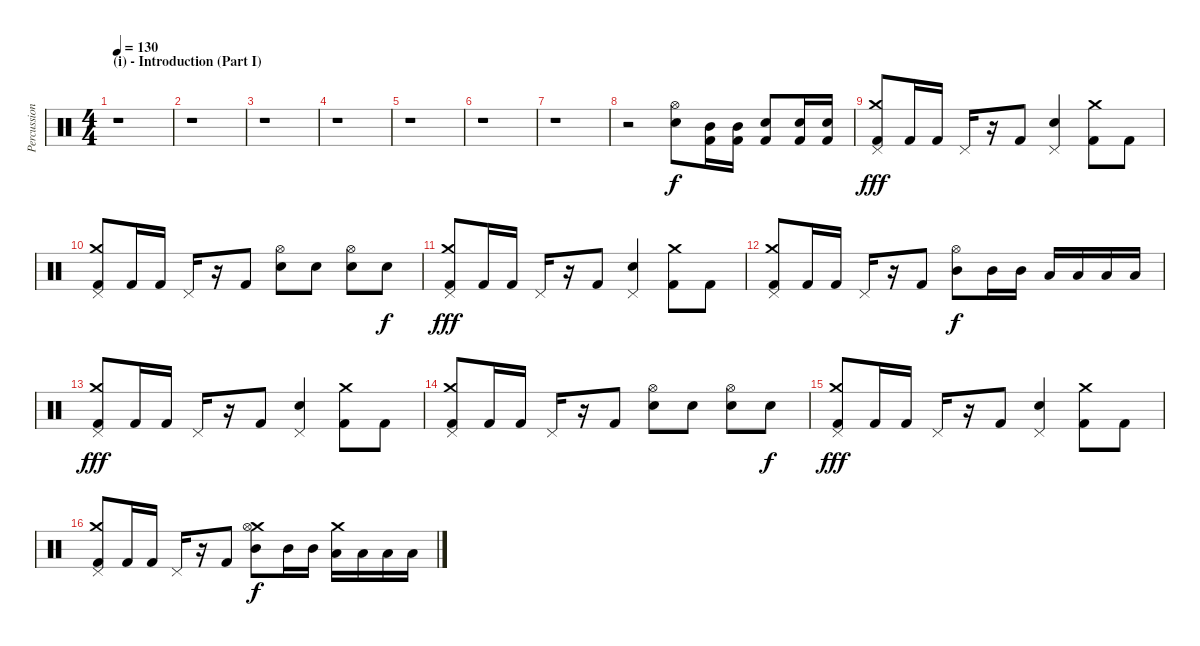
\track ("Percussion" "Percussion") {instrument percussion}
\staff {score}
\articulation defaults
\ts (4 4)
\section ("" "(i) - Introduction (Part I)")
\tempo 130
\clef neutral
\ks c
r.1{dy f} |
r.1 |
r.1 |
r.1 |
r.1 |
r.1 |
r.1 |
r.2 ("Hi-Hat (open)" "Snare (hit) 2").8 ("Mid Tom (hit)" "Kick (hit) 2").16 ("Mid Tom (hit)" "Kick (hit) 2").16 ("Snare (hit) 2" "Kick (hit) 2").8 ("Snare (hit) 2" "Kick (hit) 2").16 ("Snare (hit) 2" "Kick (hit) 2").16 |
("Crash medium (hit)" "Pedal Hi-Hat (hit)" "Kick (hit) 2").8{dy fff} "Kick (hit) 2".16 "Kick (hit) 2".16 "Pedal Hi-Hat (hit)".16 r.16 "Kick (hit) 2".8 ("Pedal Hi-Hat (hit)" "Snare (hit) 2").4 ("Crash medium (hit)" "Kick (hit) 2").8 "Kick (hit) 2".8 |
("Crash medium (hit)" "Pedal Hi-Hat (hit)" "Kick (hit) 2").8 "Kick (hit) 2".16 "Kick (hit) 2".16 "Pedal Hi-Hat (hit)".16 r.16 "Kick (hit) 2".8 ("Hi-Hat (open)" "Snare (hit) 2").8 "Snare (hit) 2".8 ("Hi-Hat (open)" "Snare (hit) 2").8 "Snare (hit) 2".8{dy f} |
("Crash medium (hit)" "Pedal Hi-Hat (hit)" "Kick (hit) 2").8{dy fff} "Kick (hit) 2".16 "Kick (hit) 2".16 "Pedal Hi-Hat (hit)".16 r.16 "Kick (hit) 2".8 ("Pedal Hi-Hat (hit)" "Snare (hit) 2").4 ("Crash medium (hit)" "Kick (hit) 2").8 "Kick (hit) 2".8 |
("Crash medium (hit)" "Pedal Hi-Hat (hit)" "Kick (hit) 2").8 "Kick (hit) 2".16 "Kick (hit) 2".16 "Pedal Hi-Hat (hit)".16 r.16 "Kick (hit) 2".8 ("Hi-Hat (open)" "Mid Tom (hit)").8{dy f} "Mid Tom (hit)".16 "Mid Tom (hit)".16 "Low Tom (hit)".16 "Low Tom (hit)".16 "Low Tom (hit)".16 "Low Tom (hit)".16 |
("Crash medium (hit)" "Pedal Hi-Hat (hit)" "Kick (hit) 2").8{dy fff} "Kick (hit) 2".16 "Kick (hit) 2".16 "Pedal Hi-Hat (hit)".16 r.16 "Kick (hit) 2".8 ("Pedal Hi-Hat (hit)" "Snare (hit) 2").4 ("Crash medium (hit)" "Kick (hit) 2").8 "Kick (hit) 2".8 |
("Crash medium (hit)" "Pedal Hi-Hat (hit)" "Kick (hit) 2").8 "Kick (hit) 2".16 "Kick (hit) 2".16 "Pedal Hi-Hat (hit)".16 r.16 "Kick (hit) 2".8 ("Hi-Hat (open)" "Snare (hit) 2").8 "Snare (hit) 2".8 ("Hi-Hat (open)" "Snare (hit) 2").8 "Snare (hit) 2".8{dy f} |
("Crash medium (hit)" "Pedal Hi-Hat (hit)" "Kick (hit) 2").8{dy fff} "Kick (hit) 2".16 "Kick (hit) 2".16 "Pedal Hi-Hat (hit)".16 r.16 "Kick (hit) 2".8 ("Pedal Hi-Hat (hit)" "Snare (hit) 2").4 ("Crash medium (hit)" "Kick (hit) 2").8 "Kick (hit) 2".8 |
("Crash medium (hit)" "Pedal Hi-Hat (hit)" "Kick (hit) 2").8 "Kick (hit) 2".16 "Kick (hit) 2".16 "Pedal Hi-Hat (hit)".16 r.16 "Kick (hit) 2".8 ("Crash medium (hit)" "Hi-Hat (open)" "Mid Tom (hit)").8{dy f} "Mid Tom (hit)".16 "Mid Tom (hit)".16 ("Crash medium (hit)" "Low Tom (hit)").16 "Low Tom (hit)".16 "Low Tom (hit)".16 "Low Tom (hit)".16
